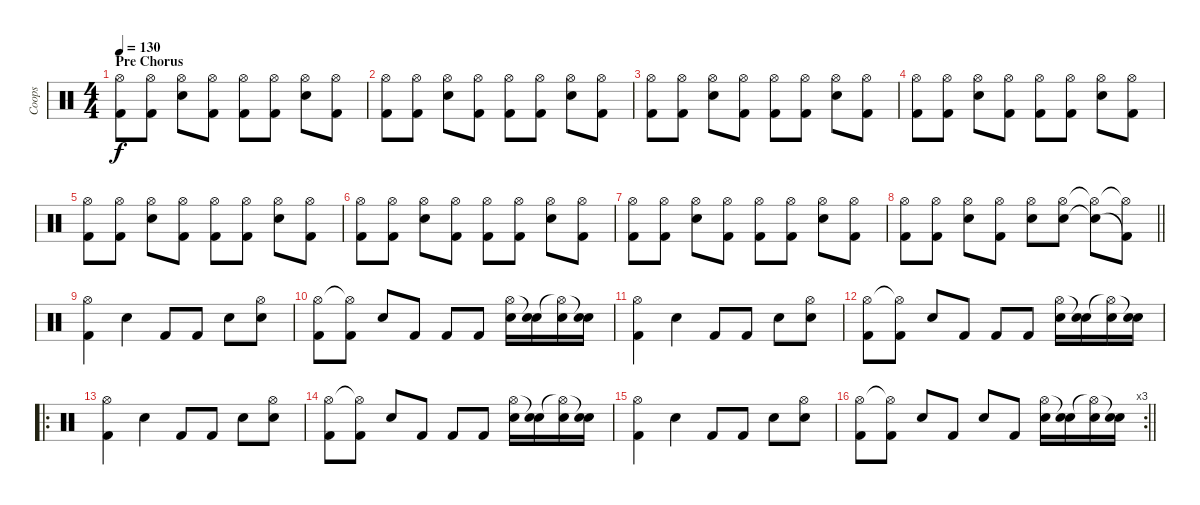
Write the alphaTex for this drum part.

\track ("Coops" "Coops") {instrument percussion}
\staff {score}
\articulation defaults
\ts (4 4)
\section ("" "Pre Chorus")
\tempo 130
\clef neutral
\ks c
("Hi-Hat (open)" "Kick (hit) 2").8{dy f} ("Hi-Hat (open)" "Kick (hit) 2").8 ("Hi-Hat (open)" "Snare (hit) 2").8 ("Hi-Hat (open)" "Kick (hit) 2").8 ("Hi-Hat (open)" "Kick (hit) 2").8 ("Hi-Hat (open)" "Kick (hit) 2").8 ("Hi-Hat (open)" "Snare (hit) 2").8 ("Hi-Hat (open)" "Kick (hit) 2").8 |
("Hi-Hat (open)" "Kick (hit) 2").8 ("Hi-Hat (open)" "Kick (hit) 2").8 ("Hi-Hat (open)" "Snare (hit) 2").8 ("Hi-Hat (open)" "Kick (hit) 2").8 ("Hi-Hat (open)" "Kick (hit) 2").8 ("Hi-Hat (open)" "Kick (hit) 2").8 ("Hi-Hat (open)" "Snare (hit) 2").8 ("Hi-Hat (open)" "Kick (hit) 2").8 |
("Hi-Hat (open)" "Kick (hit) 2").8 ("Hi-Hat (open)" "Kick (hit) 2").8 ("Hi-Hat (open)" "Snare (hit) 2").8 ("Hi-Hat (open)" "Kick (hit) 2").8 ("Hi-Hat (open)" "Kick (hit) 2").8 ("Hi-Hat (open)" "Kick (hit) 2").8 ("Hi-Hat (open)" "Snare (hit) 2").8 ("Hi-Hat (open)" "Kick (hit) 2").8 |
("Hi-Hat (open)" "Kick (hit) 2").8 ("Hi-Hat (open)" "Kick (hit) 2").8 ("Hi-Hat (open)" "Snare (hit) 2").8 ("Hi-Hat (open)" "Kick (hit) 2").8 ("Hi-Hat (open)" "Kick (hit) 2").8 ("Hi-Hat (open)" "Kick (hit) 2").8 ("Hi-Hat (open)" "Snare (hit) 2").8 ("Hi-Hat (open)" "Kick (hit) 2").8 |
("Hi-Hat (open)" "Kick (hit) 2").8 ("Hi-Hat (open)" "Kick (hit) 2").8 ("Hi-Hat (open)" "Snare (hit) 2").8 ("Hi-Hat (open)" "Kick (hit) 2").8 ("Hi-Hat (open)" "Kick (hit) 2").8 ("Hi-Hat (open)" "Kick (hit) 2").8 ("Hi-Hat (open)" "Snare (hit) 2").8 ("Hi-Hat (open)" "Kick (hit) 2").8 |
("Hi-Hat (open)" "Kick (hit) 2").8 ("Hi-Hat (open)" "Kick (hit) 2").8 ("Hi-Hat (open)" "Snare (hit) 2").8 ("Hi-Hat (open)" "Kick (hit) 2").8 ("Hi-Hat (open)" "Kick (hit) 2").8 ("Hi-Hat (open)" "Kick (hit) 2").8 ("Hi-Hat (open)" "Snare (hit) 2").8 ("Hi-Hat (open)" "Kick (hit) 2").8 |
("Hi-Hat (open)" "Kick (hit) 2").8 ("Hi-Hat (open)" "Kick (hit) 2").8 ("Hi-Hat (open)" "Snare (hit) 2").8 ("Hi-Hat (open)" "Kick (hit) 2").8 ("Hi-Hat (open)" "Kick (hit) 2").8 ("Hi-Hat (open)" "Kick (hit) 2").8 ("Hi-Hat (open)" "Snare (hit) 2").8 ("Hi-Hat (open)" "Kick (hit) 2").8 |
\barLineRight lightlight
("Hi-Hat (open)" "Kick (hit) 2").8 ("Hi-Hat (open)" "Kick (hit) 2").8 ("Hi-Hat (open)" "Snare (hit) 2").8 ("Hi-Hat (open)" "Kick (hit) 2").8 ("Hi-Hat (open)" "Snare (hit) 2").8 ("Hi-Hat (open)" "Snare (hit) 2").8 ("Hi-Hat (open)"{t} "Snare (hit) 2"{t}).8 ("Hi-Hat (open)"{t} "Kick (hit) 2"{t}).8 |
("Hi-Hat (open)" "Kick (hit) 2").4 "Snare (hit) 2".4 "Kick (hit) 2".8 "Kick (hit) 2".8 "Snare (hit) 2".8 ("Hi-Hat (open)" "Snare (hit) 2").8 |
("Hi-Hat (open)" "Kick (hit) 2").8 ("Hi-Hat (open)"{t} "Kick (hit) 2").8 "Snare (hit) 2".8 "Kick (hit) 2".8 "Kick (hit) 2".8 "Kick (hit) 2".8 ("Hi-Hat (open)" "Snare (hit) 2").16 ("Snare (hit)"{t} "Snare (hit) 2").16 ("Hi-Hat (open)"{t} "Snare (hit) 2").16 ("Snare (hit)"{t} "Snare (hit) 2").16 |
("Hi-Hat (open)" "Kick (hit) 2").4 "Snare (hit) 2".4 "Kick (hit) 2".8 "Kick (hit) 2".8 "Snare (hit) 2".8 ("Hi-Hat (open)" "Snare (hit) 2").8 |
("Hi-Hat (open)" "Kick (hit) 2").8 ("Hi-Hat (open)"{t} "Kick (hit) 2").8 "Snare (hit) 2".8 "Kick (hit) 2".8 "Kick (hit) 2".8 "Kick (hit) 2".8 ("Hi-Hat (open)" "Snare (hit) 2").16 ("Snare (hit)"{t} "Snare (hit) 2").16 ("Hi-Hat (open)"{t} "Snare (hit) 2").16 ("Snare (hit)"{t} "Snare (hit) 2").16 |
\ro
("Hi-Hat (open)" "Kick (hit) 2").4 "Snare (hit) 2".4 "Kick (hit) 2".8 "Kick (hit) 2".8 "Snare (hit) 2".8 ("Hi-Hat (open)" "Snare (hit) 2").8 |
("Hi-Hat (open)" "Kick (hit) 2").8 ("Hi-Hat (open)"{t} "Kick (hit) 2").8 "Snare (hit) 2".8 "Kick (hit) 2".8 "Kick (hit) 2".8 "Kick (hit) 2".8 ("Hi-Hat (open)" "Snare (hit) 2").16 ("Snare (hit)"{t} "Snare (hit) 2").16 ("Hi-Hat (open)"{t} "Snare (hit) 2").16 ("Snare (hit)"{t} "Snare (hit) 2").16 |
("Hi-Hat (open)" "Kick (hit) 2").4 "Snare (hit) 2".4 "Kick (hit) 2".8 "Kick (hit) 2".8 "Snare (hit) 2".8 ("Hi-Hat (open)" "Snare (hit) 2").8 |
\rc 3
\barLineRight lightlight
("Hi-Hat (open)" "Kick (hit) 2").8 ("Hi-Hat (open)"{t} "Kick (hit) 2").8 "Snare (hit) 2".8 "Kick (hit) 2".8 "Snare (hit) 2".8 "Kick (hit) 2".8 ("Hi-Hat (open)" "Snare (hit) 2").16 ("Snare (hit)"{t} "Snare (hit) 2").16 ("Hi-Hat (open)"{t} "Snare (hit) 2").16 ("Snare (hit)"{t} "Snare (hit) 2").16
